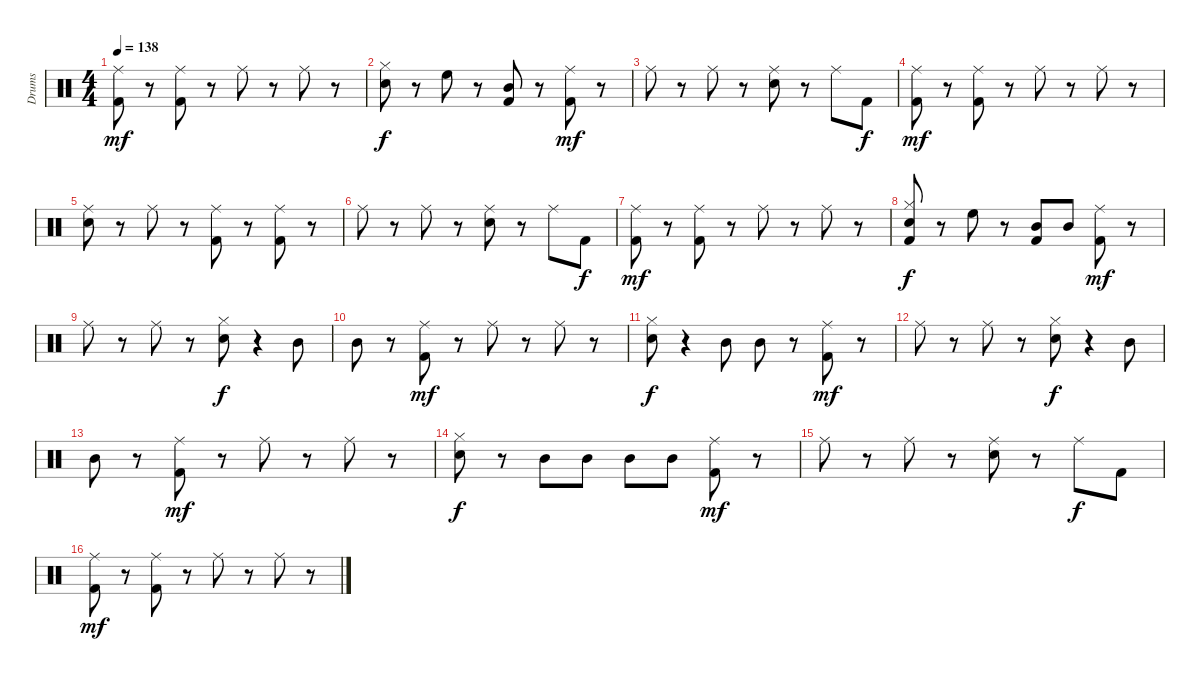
\track ("Drums" "Drums") {instrument percussion}
\staff {score}
\articulation defaults
\ts (4 4)
\tempo 138
\clef neutral
\ks c
("Ride (middle)" "Kick (hit) 2").8{dy mf} r.8 ("Ride (middle)" "Kick (hit) 2").8 r.8 "Ride (middle)".8 r.8 "Ride (middle)".8 r.8 |
("Hi-Hat (closed)" "Snare (hit) 2").8{dy f} r.8 "High Floor Tom (hit)".8 r.8 ("Mid Tom (hit)" "Kick (hit) 2").8 r.8 ("Ride (middle)" "Kick (hit) 2").8{dy mf} r.8 |
"Ride (middle)".8 r.8 "Ride (middle)".8 r.8 ("Ride (middle)" "Snare (hit) 2").8 r.8 "Ride (middle)".8 "Kick (hit) 2".8{dy f} |
("Ride (middle)" "Kick (hit) 2").8{dy mf} r.8 ("Ride (middle)" "Kick (hit) 2").8 r.8 "Ride (middle)".8 r.8 "Ride (middle)".8 r.8 |
("Ride (middle)" "Snare (hit) 2").8 r.8 "Ride (middle)".8 r.8 ("Ride (middle)" "Kick (hit) 2").8 r.8 ("Ride (middle)" "Kick (hit) 2").8 r.8 |
"Ride (middle)".8 r.8 "Ride (middle)".8 r.8 ("Ride (middle)" "Snare (hit) 2").8 r.8 "Ride (middle)".8 "Kick (hit) 2".8{dy f} |
("Ride (middle)" "Kick (hit) 2").8{dy mf} r.8 ("Ride (middle)" "Kick (hit) 2").8 r.8 "Ride (middle)".8 r.8 "Ride (middle)".8 r.8 |
("Hi-Hat (closed)" "Snare (hit) 2" "Kick (hit) 2").8{dy f} r.8 "High Floor Tom (hit)".8 r.8 ("Mid Tom (hit)" "Kick (hit) 2").8 "Mid Tom (hit)".8 ("Ride (middle)" "Kick (hit) 2").8{dy mf} r.8 |
"Ride (middle)".8 r.8 "Ride (middle)".8 r.8 ("Hi-Hat (closed)" "Snare (hit) 2").8{dy f} r.4 "Mid Tom (hit)".8 |
"Mid Tom (hit)".8 r.8 ("Ride (middle)" "Kick (hit) 2").8{dy mf} r.8 "Ride (middle)".8 r.8 "Ride (middle)".8 r.8 |
("Hi-Hat (closed)" "Snare (hit) 2").8{dy f} r.4 "Mid Tom (hit)".8 "Mid Tom (hit)".8 r.8 ("Ride (middle)" "Kick (hit) 2").8{dy mf} r.8 |
"Ride (middle)".8 r.8 "Ride (middle)".8 r.8 ("Hi-Hat (closed)" "Snare (hit) 2").8{dy f} r.4 "Mid Tom (hit)".8 |
"Mid Tom (hit)".8 r.8 ("Ride (middle)" "Kick (hit) 2").8{dy mf} r.8 "Ride (middle)".8 r.8 "Ride (middle)".8 r.8 |
("Hi-Hat (closed)" "Snare (hit) 2").8{dy f} r.8 "Mid Tom (hit)".8 "Mid Tom (hit)".8 "Mid Tom (hit)".8 "Mid Tom (hit)".8 ("Ride (middle)" "Kick (hit) 2").8{dy mf} r.8 |
"Ride (middle)".8 r.8 "Ride (middle)".8 r.8 ("Ride (middle)" "Snare (hit) 2").8 r.8 "Ride (middle)".8{dy f} "Kick (hit) 2".8 |
("Ride (middle)" "Kick (hit) 2").8{dy mf} r.8 ("Ride (middle)" "Kick (hit) 2").8 r.8 "Ride (middle)".8 r.8 "Ride (middle)".8 r.8
